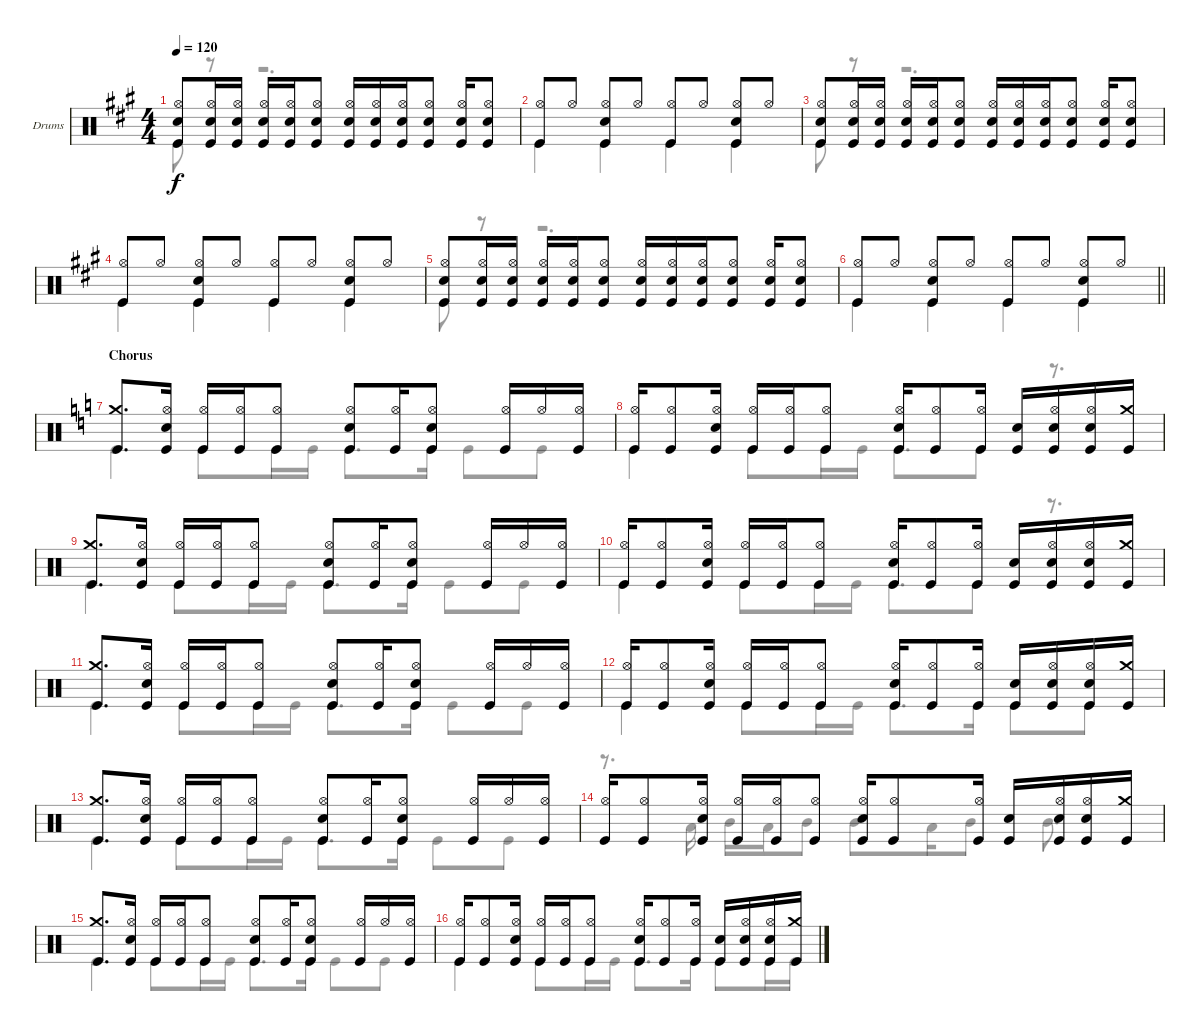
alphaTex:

\bracketExtendMode groupsimilarinstruments
\firstSystemTrackNameOrientation horizontal
\otherSystemsTrackNameOrientation horizontal
\track ("Drumkit" "Drums") {instrument percussion}
\staff {score}
\articulation defaults
\voice
\ts (4 4)
\tempo 120
\clef neutral
\ks a
("Kick (hit)" "Hi-Hat (open)" "Snare (hit) 2").8{dy f} ("Snare (hit) 2" "Kick (hit)" "Hi-Hat (open)").16 ("Snare (hit) 2" "Kick (hit)" "Hi-Hat (open)").16 ("Snare (hit) 2" "Kick (hit)" "Hi-Hat (open)").16 ("Snare (hit) 2" "Kick (hit)" "Hi-Hat (open)").16 ("Kick (hit)" "Hi-Hat (open)" "Snare (hit) 2").8 ("Snare (hit) 2" "Kick (hit)" "Hi-Hat (open)").16 ("Snare (hit) 2" "Kick (hit)" "Hi-Hat (open)").16 ("Snare (hit) 2" "Kick (hit)" "Hi-Hat (open)").16 ("Snare (hit) 2" "Kick (hit)" "Hi-Hat (open)").8 ("Snare (hit) 2" "Kick (hit)" "Hi-Hat (open)").16 ("Snare (hit) 2" "Kick (hit)" "Hi-Hat (open)").8 |
("Kick (hit)" "Hi-Hat (open)").8 "Hi-Hat (open)".8 ("Kick (hit)" "Hi-Hat (open)" "Snare (hit) 2").8 "Hi-Hat (open)".8 ("Kick (hit)" "Hi-Hat (open)").8 "Hi-Hat (open)".8 ("Kick (hit)" "Hi-Hat (open)" "Snare (hit) 2").8 "Hi-Hat (open)".8 |
("Kick (hit)" "Hi-Hat (open)" "Snare (hit) 2").8 ("Snare (hit) 2" "Kick (hit)" "Hi-Hat (open)").16 ("Snare (hit) 2" "Kick (hit)" "Hi-Hat (open)").16 ("Snare (hit) 2" "Kick (hit)" "Hi-Hat (open)").16 ("Snare (hit) 2" "Kick (hit)" "Hi-Hat (open)").16 ("Kick (hit)" "Hi-Hat (open)" "Snare (hit) 2").8 ("Snare (hit) 2" "Kick (hit)" "Hi-Hat (open)").16 ("Snare (hit) 2" "Kick (hit)" "Hi-Hat (open)").16 ("Snare (hit) 2" "Kick (hit)" "Hi-Hat (open)").16 ("Snare (hit) 2" "Kick (hit)" "Hi-Hat (open)").8 ("Snare (hit) 2" "Kick (hit)" "Hi-Hat (open)").16 ("Snare (hit) 2" "Kick (hit)" "Hi-Hat (open)").8 |
("Kick (hit)" "Hi-Hat (open)").8 "Hi-Hat (open)".8 ("Kick (hit)" "Hi-Hat (open)" "Snare (hit) 2").8 "Hi-Hat (open)".8 ("Kick (hit)" "Hi-Hat (open)").8 "Hi-Hat (open)".8 ("Kick (hit)" "Hi-Hat (open)" "Snare (hit) 2").8 "Hi-Hat (open)".8 |
("Kick (hit)" "Hi-Hat (open)" "Snare (hit) 2").8 ("Snare (hit) 2" "Kick (hit)" "Hi-Hat (open)").16 ("Snare (hit) 2" "Kick (hit)" "Hi-Hat (open)").16 ("Snare (hit) 2" "Kick (hit)" "Hi-Hat (open)").16 ("Snare (hit) 2" "Kick (hit)" "Hi-Hat (open)").16 ("Kick (hit)" "Hi-Hat (open)" "Snare (hit) 2").8 ("Snare (hit) 2" "Kick (hit)" "Hi-Hat (open)").16 ("Snare (hit) 2" "Kick (hit)" "Hi-Hat (open)").16 ("Snare (hit) 2" "Kick (hit)" "Hi-Hat (open)").16 ("Snare (hit) 2" "Kick (hit)" "Hi-Hat (open)").8 ("Snare (hit) 2" "Kick (hit)" "Hi-Hat (open)").16 ("Snare (hit) 2" "Kick (hit)" "Hi-Hat (open)").8 |
\barLineRight lightlight
("Kick (hit)" "Hi-Hat (open)").8 "Hi-Hat (open)".8 ("Kick (hit)" "Hi-Hat (open)" "Snare (hit) 2").8 "Hi-Hat (open)".8 ("Kick (hit)" "Hi-Hat (open)").8 "Hi-Hat (open)".8 ("Kick (hit)" "Hi-Hat (open)" "Snare (hit) 2").8 "Hi-Hat (open)".8 |
\section ("" "Chorus")
\ks c
("Crash medium (hit)" "Kick (hit)").8{d} ("Hi-Hat (open)" "Snare (hit) 2" "Kick (hit)").16 ("Hi-Hat (open)" "Kick (hit)").16 ("Hi-Hat (open)" "Kick (hit)").16 ("Hi-Hat (open)" "Kick (hit)").8 ("Hi-Hat (open)" "Snare (hit) 2" "Kick (hit)").8 ("Hi-Hat (open)" "Kick (hit)").16 ("Hi-Hat (open)" "Snare (hit) 2" "Kick (hit)").8 ("Hi-Hat (open)" "Kick (hit)").16 "Hi-Hat (open)".16 ("Hi-Hat (open)" "Kick (hit)").16 |
("Hi-Hat (open)" "Kick (hit)").16 ("Hi-Hat (open)" "Kick (hit)").8 ("Hi-Hat (open)" "Snare (hit) 2" "Kick (hit)").16 ("Hi-Hat (open)" "Kick (hit)").16 ("Hi-Hat (open)" "Kick (hit)").16 ("Hi-Hat (open)" "Kick (hit)").8 ("Hi-Hat (open)" "Snare (hit) 2" "Kick (hit)").16 ("Hi-Hat (open)" "Kick (hit)").8 ("Hi-Hat (open)" "Kick (hit)").16 ("Snare (hit) 2" "Kick (hit)").16 ("Snare (hit) 2" "Hi-Hat (open)" "Kick (hit)").16 ("Snare (hit) 2" "Hi-Hat (open)" "Kick (hit)").16 ("Crash medium (hit)" "Kick (hit)").16 |
("Crash medium (hit)" "Kick (hit)").8{d} ("Hi-Hat (open)" "Snare (hit) 2" "Kick (hit)").16 ("Hi-Hat (open)" "Kick (hit)").16 ("Hi-Hat (open)" "Kick (hit)").16 ("Hi-Hat (open)" "Kick (hit)").8 ("Hi-Hat (open)" "Snare (hit) 2" "Kick (hit)").8 ("Hi-Hat (open)" "Kick (hit)").16 ("Hi-Hat (open)" "Snare (hit) 2" "Kick (hit)").8 ("Hi-Hat (open)" "Kick (hit)").16 "Hi-Hat (open)".16 ("Hi-Hat (open)" "Kick (hit)").16 |
("Hi-Hat (open)" "Kick (hit)").16 ("Hi-Hat (open)" "Kick (hit)").8 ("Hi-Hat (open)" "Snare (hit) 2" "Kick (hit)").16 ("Hi-Hat (open)" "Kick (hit)").16 ("Hi-Hat (open)" "Kick (hit)").16 ("Hi-Hat (open)" "Kick (hit)").8 ("Hi-Hat (open)" "Snare (hit) 2" "Kick (hit)").16 ("Hi-Hat (open)" "Kick (hit)").8 ("Hi-Hat (open)" "Kick (hit)").16 ("Snare (hit) 2" "Kick (hit)").16 ("Snare (hit) 2" "Hi-Hat (open)" "Kick (hit)").16 ("Snare (hit) 2" "Hi-Hat (open)" "Kick (hit)").16 ("Crash medium (hit)" "Kick (hit)").16 |
("Crash medium (hit)" "Kick (hit)").8{d} ("Hi-Hat (open)" "Snare (hit) 2" "Kick (hit)").16 ("Hi-Hat (open)" "Kick (hit)").16 ("Hi-Hat (open)" "Kick (hit)").16 ("Hi-Hat (open)" "Kick (hit)").8 ("Hi-Hat (open)" "Snare (hit) 2" "Kick (hit)").8 ("Hi-Hat (open)" "Kick (hit)").16 ("Hi-Hat (open)" "Snare (hit) 2" "Kick (hit)").8 ("Hi-Hat (open)" "Kick (hit)").16 "Hi-Hat (open)".16 ("Hi-Hat (open)" "Kick (hit)").16 |
("Hi-Hat (open)" "Kick (hit)").16 ("Hi-Hat (open)" "Kick (hit)").8 ("Hi-Hat (open)" "Snare (hit) 2" "Kick (hit)").16 ("Hi-Hat (open)" "Kick (hit)").16 ("Hi-Hat (open)" "Kick (hit)").16 ("Hi-Hat (open)" "Kick (hit)").8 ("Hi-Hat (open)" "Snare (hit) 2" "Kick (hit)").16 ("Hi-Hat (open)" "Kick (hit)").8 ("Hi-Hat (open)" "Kick (hit)").16 ("Snare (hit) 2" "Kick (hit)").16 ("Snare (hit) 2" "Hi-Hat (open)" "Kick (hit)").16 ("Snare (hit) 2" "Hi-Hat (open)" "Kick (hit)").16 ("Crash medium (hit)" "Kick (hit)").16 |
("Crash medium (hit)" "Kick (hit)").8{d} ("Hi-Hat (open)" "Snare (hit) 2" "Kick (hit)").16 ("Hi-Hat (open)" "Kick (hit)").16 ("Hi-Hat (open)" "Kick (hit)").16 ("Hi-Hat (open)" "Kick (hit)").8 ("Hi-Hat (open)" "Snare (hit) 2" "Kick (hit)").8 ("Hi-Hat (open)" "Kick (hit)").16 ("Hi-Hat (open)" "Snare (hit) 2" "Kick (hit)").8 ("Hi-Hat (open)" "Kick (hit)").16 "Hi-Hat (open)".16 ("Hi-Hat (open)" "Kick (hit)").16 |
("Hi-Hat (open)" "Kick (hit)").16 ("Hi-Hat (open)" "Kick (hit)").8 ("Hi-Hat (open)" "Snare (hit) 2" "Kick (hit)").16 ("Hi-Hat (open)" "Kick (hit)").16 ("Hi-Hat (open)" "Kick (hit)").16 ("Hi-Hat (open)" "Kick (hit)").8 ("Hi-Hat (open)" "Snare (hit) 2" "Kick (hit)").16 ("Hi-Hat (open)" "Kick (hit)").8 ("Hi-Hat (open)" "Kick (hit)").16 ("Snare (hit) 2" "Kick (hit)").16 ("Snare (hit) 2" "Hi-Hat (open)" "Kick (hit)").16 ("Snare (hit) 2" "Hi-Hat (open)" "Kick (hit)").16 ("Crash medium (hit)" "Kick (hit)").16 |
("Crash medium (hit)" "Kick (hit)").8{d} ("Hi-Hat (open)" "Snare (hit) 2" "Kick (hit)").16 ("Hi-Hat (open)" "Kick (hit)").16 ("Hi-Hat (open)" "Kick (hit)").16 ("Hi-Hat (open)" "Kick (hit)").8 ("Hi-Hat (open)" "Snare (hit) 2" "Kick (hit)").8 ("Hi-Hat (open)" "Kick (hit)").16 ("Hi-Hat (open)" "Snare (hit) 2" "Kick (hit)").8 ("Hi-Hat (open)" "Kick (hit)").16 "Hi-Hat (open)".16 ("Hi-Hat (open)" "Kick (hit)").16 |
("Hi-Hat (open)" "Kick (hit)").16 ("Hi-Hat (open)" "Kick (hit)").8 ("Hi-Hat (open)" "Snare (hit) 2" "Kick (hit)").16 ("Hi-Hat (open)" "Kick (hit)").16 ("Hi-Hat (open)" "Kick (hit)").16 ("Hi-Hat (open)" "Kick (hit)").8 ("Hi-Hat (open)" "Snare (hit) 2" "Kick (hit)").16 ("Hi-Hat (open)" "Kick (hit)").8 ("Hi-Hat (open)" "Kick (hit)").16 ("Snare (hit) 2" "Kick (hit)").16 ("Snare (hit) 2" "Hi-Hat (open)" "Kick (hit)").16 ("Snare (hit) 2" "Hi-Hat (open)" "Kick (hit)").16 ("Crash medium (hit)" "Kick (hit)").16
\voice
\clef neutral
\ottava regular
\simile none
\ks a "Kick (hit)".8{dy f}
r.8 r.2{d} |
"Kick (hit)".4 "Kick (hit)".4 "Kick (hit)".4 "Kick (hit)".4 |
"Kick (hit)".8 r.8 r.2{d} |
"Kick (hit)".4 "Kick (hit)".4 "Kick (hit)".4 "Kick (hit)".4 |
"Kick (hit)".8 r.8 r.2{d} |
\barLineRight lightlight "Kick (hit)".4 "Kick (hit)".4 "Kick (hit)".4 "Kick (hit)".4
|
\ks c "Kick (hit)".4 "Kick (hit)".8 "Kick (hit)".16 "Kick (hit)".16 "Kick (hit)".8{d} "Kick (hit)".16 "Kick (hit)".8 "Kick (hit)".8
|
"Kick (hit)".4 "Kick (hit)".8 "Kick (hit)".16 "Kick (hit)".16 "Kick (hit)".8{d} "Kick (hit)".8 r.8{d} |
"Kick (hit)".4 "Kick (hit)".8 "Kick (hit)".16 "Kick (hit)".16 "Kick (hit)".8{d} "Kick (hit)".16 "Kick (hit)".8 "Kick (hit)".8 |
"Kick (hit)".4 "Kick (hit)".8 "Kick (hit)".16 "Kick (hit)".16 "Kick (hit)".8{d} "Kick (hit)".8 r.8{d} |
"Kick (hit)".4 "Kick (hit)".8 "Kick (hit)".16 "Kick (hit)".16 "Kick (hit)".8{d} "Kick (hit)".16 "Kick (hit)".8 "Kick (hit)".8 |
"Kick (hit)".4 "Kick (hit)".8 "Kick (hit)".16 "Kick (hit)".16 "Kick (hit)".8{d} "Kick (hit)".16 "Kick (hit)".8 "Kick (hit)".8 |
"Kick (hit)".4 "Kick (hit)".8 "Kick (hit)".16 "Kick (hit)".16 "Kick (hit)".8{d} "Kick (hit)".16 "Kick (hit)".8 "Kick (hit)".8 |
r.8{d} "Low Tom (hit)".16 "Mid Tom (hit)".16 "Low Tom (hit)".16 "Mid Tom (hit)".8 "Mid Tom (hit)".8 "Low Tom (hit)".16 "Mid Tom (hit)".8 "Mid Tom (hit)".8{d} |
"Kick (hit)".4 "Kick (hit)".8 "Kick (hit)".16 "Kick (hit)".16 "Kick (hit)".8{d} "Kick (hit)".16 "Kick (hit)".8 "Kick (hit)".8 |
"Kick (hit)".4 "Kick (hit)".8 "Kick (hit)".16 "Kick (hit)".16 "Kick (hit)".8{d} "Kick (hit)".16 "Kick (hit)".8 "Kick (hit)".16 "Kick (hit)".16
